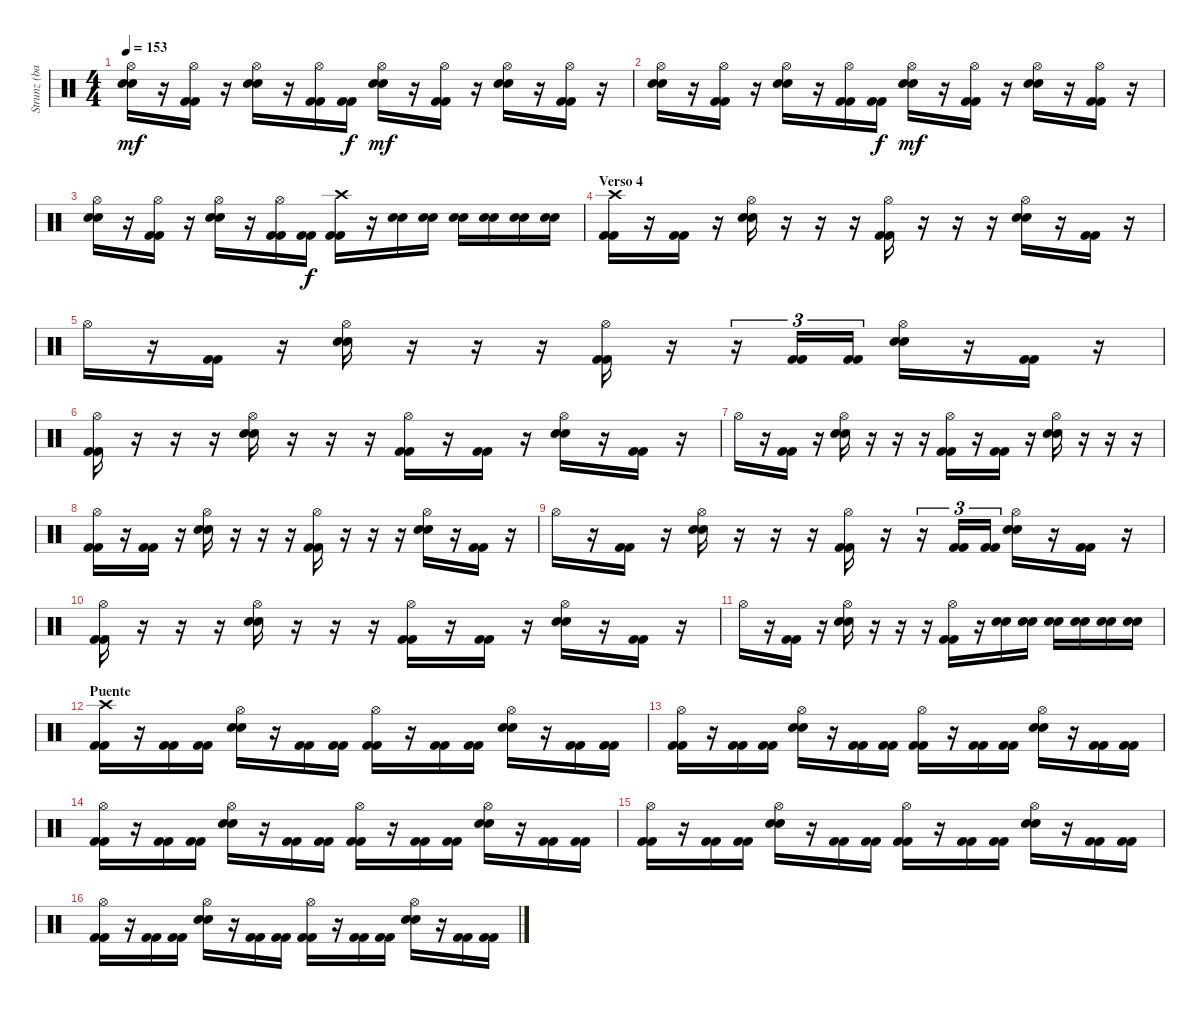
\track ("Strunz (bateria)" "Strunz (ba") {instrument percussion}
\staff {score}
\articulation defaults
\ts (4 4)
\tempo 153
\clef neutral
\ks c
("Hi-Hat (open)" "Snare (hit) 2" "Snare (hit) 2").16{dy mf} r.16 ("Hi-Hat (open)" "Kick (hit) 2" "Kick (hit) 2").16 r.16 ("Hi-Hat (open)" "Snare (hit) 2" "Snare (hit) 2").16 r.16 ("Hi-Hat (open)" "Kick (hit) 2" "Kick (hit) 2").16 ("Kick (hit) 2" "Kick (hit) 2").16{dy f} ("Hi-Hat (open)" "Snare (hit) 2" "Snare (hit) 2").16{dy mf} r.16 ("Hi-Hat (open)" "Kick (hit) 2" "Kick (hit) 2").16 r.16 ("Hi-Hat (open)" "Snare (hit) 2" "Snare (hit) 2").16 r.16 ("Hi-Hat (open)" "Kick (hit) 2" "Kick (hit) 2").16 r.16 |
("Hi-Hat (open)" "Snare (hit) 2" "Snare (hit) 2").16 r.16 ("Hi-Hat (open)" "Kick (hit) 2" "Kick (hit) 2").16 r.16 ("Hi-Hat (open)" "Snare (hit) 2" "Snare (hit) 2").16 r.16 ("Hi-Hat (open)" "Kick (hit) 2" "Kick (hit) 2").16 ("Kick (hit) 2" "Kick (hit) 2").16{dy f} ("Hi-Hat (open)" "Snare (hit) 2" "Snare (hit) 2").16{dy mf} r.16 ("Hi-Hat (open)" "Kick (hit) 2" "Kick (hit) 2").16 r.16 ("Hi-Hat (open)" "Snare (hit) 2" "Snare (hit) 2").16 r.16 ("Hi-Hat (open)" "Kick (hit) 2" "Kick (hit) 2").16 r.16 |
("Hi-Hat (open)" "Snare (hit) 2" "Snare (hit) 2").16 r.16 ("Hi-Hat (open)" "Kick (hit) 2" "Kick (hit) 2").16 r.16 ("Hi-Hat (open)" "Snare (hit) 2" "Snare (hit) 2").16 r.16 ("Hi-Hat (open)" "Kick (hit) 2" "Kick (hit) 2").16 ("Kick (hit) 2" "Kick (hit) 2").16{dy f} ("Crash high (hit)" "Kick (hit) 2" "Kick (hit) 2").16 r.16 ("Snare (hit) 2" "Snare (hit) 2").16 ("Snare (hit) 2" "Snare (hit) 2").16 ("Snare (hit) 2" "Snare (hit) 2").16 ("Snare (hit) 2" "Snare (hit) 2").16 ("Snare (hit) 2" "Snare (hit) 2").16 ("Snare (hit) 2" "Snare (hit) 2").16 |
\section ("" "Verso 4")
("Crash high (hit)" "Kick (hit) 2" "Kick (hit) 2").16 r.16 ("Kick (hit) 2" "Kick (hit) 2").16 r.16 ("Hi-Hat (open)" "Snare (hit) 2" "Snare (hit) 2").16 r.16 r.16 r.16 ("Hi-Hat (open)" "Kick (hit) 2" "Kick (hit) 2").16 r.16 r.16 r.16 ("Hi-Hat (open)" "Snare (hit) 2" "Snare (hit) 2").16 r.16 ("Kick (hit) 2" "Kick (hit) 2").16 r.16 |
"Hi-Hat (open)".16 r.16 ("Kick (hit) 2" "Kick (hit) 2").16 r.16 ("Hi-Hat (open)" "Snare (hit) 2" "Snare (hit) 2").16 r.16 r.16 r.16 ("Hi-Hat (open)" "Kick (hit) 2" "Kick (hit) 2").16 r.16 r.16{tu (3 2)} ("Kick (hit) 2" "Kick (hit) 2").16{tu (3 2)} ("Kick (hit) 2" "Kick (hit) 2").16{tu (3 2)} ("Hi-Hat (open)" "Snare (hit) 2" "Snare (hit) 2").16 r.16 ("Kick (hit) 2" "Kick (hit) 2").16 r.16 |
("Hi-Hat (open)" "Kick (hit) 2" "Kick (hit) 2").16 r.16 r.16 r.16 ("Hi-Hat (open)" "Snare (hit) 2" "Snare (hit) 2").16 r.16 r.16 r.16 ("Hi-Hat (open)" "Kick (hit) 2" "Kick (hit) 2").16 r.16 ("Kick (hit) 2" "Kick (hit) 2").16 r.16 ("Hi-Hat (open)" "Snare (hit) 2" "Snare (hit) 2").16 r.16 ("Kick (hit) 2" "Kick (hit) 2").16 r.16 |
"Hi-Hat (open)".16 r.16 ("Kick (hit) 2" "Kick (hit) 2").16 r.16 ("Hi-Hat (open)" "Snare (hit) 2" "Snare (hit) 2").16 r.16 r.16 r.16 ("Hi-Hat (open)" "Kick (hit) 2" "Kick (hit) 2").16 r.16 ("Kick (hit) 2" "Kick (hit) 2").16 r.16 ("Hi-Hat (open)" "Snare (hit) 2" "Snare (hit) 2").16 r.16 r.16 r.16 |
("Hi-Hat (open)" "Kick (hit) 2" "Kick (hit) 2").16 r.16 ("Kick (hit) 2" "Kick (hit) 2").16 r.16 ("Hi-Hat (open)" "Snare (hit) 2" "Snare (hit) 2").16 r.16 r.16 r.16 ("Hi-Hat (open)" "Kick (hit) 2" "Kick (hit) 2").16 r.16 r.16 r.16 ("Hi-Hat (open)" "Snare (hit) 2" "Snare (hit) 2").16 r.16 ("Kick (hit) 2" "Kick (hit) 2").16 r.16 |
"Hi-Hat (open)".16 r.16 ("Kick (hit) 2" "Kick (hit) 2").16 r.16 ("Hi-Hat (open)" "Snare (hit) 2" "Snare (hit) 2").16 r.16 r.16 r.16 ("Hi-Hat (open)" "Kick (hit) 2" "Kick (hit) 2").16 r.16 r.16{tu (3 2)} ("Kick (hit) 2" "Kick (hit) 2").16{tu (3 2)} ("Kick (hit) 2" "Kick (hit) 2").16{tu (3 2)} ("Hi-Hat (open)" "Snare (hit) 2" "Snare (hit) 2").16 r.16 ("Kick (hit) 2" "Kick (hit) 2").16 r.16 |
("Hi-Hat (open)" "Kick (hit) 2" "Kick (hit) 2").16 r.16 r.16 r.16 ("Hi-Hat (open)" "Snare (hit) 2" "Snare (hit) 2").16 r.16 r.16 r.16 ("Hi-Hat (open)" "Kick (hit) 2" "Kick (hit) 2").16 r.16 ("Kick (hit) 2" "Kick (hit) 2").16 r.16 ("Hi-Hat (open)" "Snare (hit) 2" "Snare (hit) 2").16 r.16 ("Kick (hit) 2" "Kick (hit) 2").16 r.16 |
"Hi-Hat (open)".16 r.16 ("Kick (hit) 2" "Kick (hit) 2").16 r.16 ("Hi-Hat (open)" "Snare (hit) 2" "Snare (hit) 2").16 r.16 r.16 r.16 ("Hi-Hat (open)" "Kick (hit) 2" "Kick (hit) 2").16 r.16 ("Snare (hit) 2" "Snare (hit) 2").16 ("Snare (hit) 2" "Snare (hit) 2").16 ("Snare (hit) 2" "Snare (hit) 2").16 ("Snare (hit) 2" "Snare (hit) 2").16 ("Snare (hit) 2" "Snare (hit) 2").16 ("Snare (hit) 2" "Snare (hit) 2").16 |
\section ("" "Puente")
("Crash high (hit)" "Kick (hit) 2" "Kick (hit) 2").16 r.16 ("Kick (hit) 2" "Kick (hit) 2").16 ("Kick (hit) 2" "Kick (hit) 2").16 ("Hi-Hat (open)" "Snare (hit) 2" "Snare (hit) 2").16 r.16 ("Kick (hit) 2" "Kick (hit) 2").16 ("Kick (hit) 2" "Kick (hit) 2").16 ("Hi-Hat (open)" "Kick (hit) 2" "Kick (hit) 2").16 r.16 ("Kick (hit) 2" "Kick (hit) 2").16 ("Kick (hit) 2" "Kick (hit) 2").16 ("Hi-Hat (open)" "Snare (hit) 2" "Snare (hit) 2").16 r.16 ("Kick (hit) 2" "Kick (hit) 2").16 ("Kick (hit) 2" "Kick (hit) 2").16 |
("Hi-Hat (open)" "Kick (hit) 2" "Kick (hit) 2").16 r.16 ("Kick (hit) 2" "Kick (hit) 2").16 ("Kick (hit) 2" "Kick (hit) 2").16 ("Hi-Hat (open)" "Snare (hit) 2" "Snare (hit) 2").16 r.16 ("Kick (hit) 2" "Kick (hit) 2").16 ("Kick (hit) 2" "Kick (hit) 2").16 ("Hi-Hat (open)" "Kick (hit) 2" "Kick (hit) 2").16 r.16 ("Kick (hit) 2" "Kick (hit) 2").16 ("Kick (hit) 2" "Kick (hit) 2").16 ("Hi-Hat (open)" "Snare (hit) 2" "Snare (hit) 2").16 r.16 ("Kick (hit) 2" "Kick (hit) 2").16 ("Kick (hit) 2" "Kick (hit) 2").16 |
("Hi-Hat (open)" "Kick (hit) 2" "Kick (hit) 2").16 r.16 ("Kick (hit) 2" "Kick (hit) 2").16 ("Kick (hit) 2" "Kick (hit) 2").16 ("Hi-Hat (open)" "Snare (hit) 2" "Snare (hit) 2").16 r.16 ("Kick (hit) 2" "Kick (hit) 2").16 ("Kick (hit) 2" "Kick (hit) 2").16 ("Hi-Hat (open)" "Kick (hit) 2" "Kick (hit) 2").16 r.16 ("Kick (hit) 2" "Kick (hit) 2").16 ("Kick (hit) 2" "Kick (hit) 2").16 ("Hi-Hat (open)" "Snare (hit) 2" "Snare (hit) 2").16 r.16 ("Kick (hit) 2" "Kick (hit) 2").16 ("Kick (hit) 2" "Kick (hit) 2").16 |
("Hi-Hat (open)" "Kick (hit) 2" "Kick (hit) 2").16 r.16 ("Kick (hit) 2" "Kick (hit) 2").16 ("Kick (hit) 2" "Kick (hit) 2").16 ("Hi-Hat (open)" "Snare (hit) 2" "Snare (hit) 2").16 r.16 ("Kick (hit) 2" "Kick (hit) 2").16 ("Kick (hit) 2" "Kick (hit) 2").16 ("Hi-Hat (open)" "Kick (hit) 2" "Kick (hit) 2").16 r.16 ("Kick (hit) 2" "Kick (hit) 2").16 ("Kick (hit) 2" "Kick (hit) 2").16 ("Hi-Hat (open)" "Snare (hit) 2" "Snare (hit) 2").16 r.16 ("Kick (hit) 2" "Kick (hit) 2").16 ("Kick (hit) 2" "Kick (hit) 2").16 |
("Hi-Hat (open)" "Kick (hit) 2" "Kick (hit) 2").16 r.16 ("Kick (hit) 2" "Kick (hit) 2").16 ("Kick (hit) 2" "Kick (hit) 2").16 ("Hi-Hat (open)" "Snare (hit) 2" "Snare (hit) 2").16 r.16 ("Kick (hit) 2" "Kick (hit) 2").16 ("Kick (hit) 2" "Kick (hit) 2").16 ("Hi-Hat (open)" "Kick (hit) 2" "Kick (hit) 2").16 r.16 ("Kick (hit) 2" "Kick (hit) 2").16 ("Kick (hit) 2" "Kick (hit) 2").16 ("Hi-Hat (open)" "Snare (hit) 2" "Snare (hit) 2").16 r.16 ("Kick (hit) 2" "Kick (hit) 2").16 ("Kick (hit) 2" "Kick (hit) 2").16
